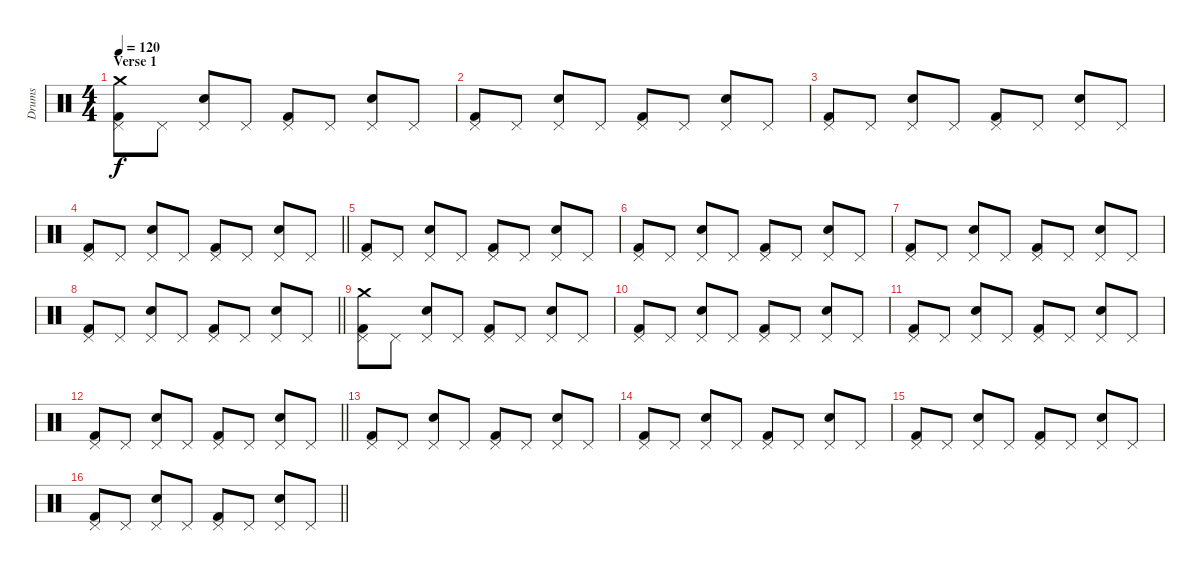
\track ("Drums" "Drums") {instrument percussion}
\staff {score}
\articulation defaults
\ts (4 4)
\section ("" "Verse 1")
\tempo 120
\clef neutral
\ks c
("Kick (hit) 2" "Pedal Hi-Hat (hit)" "Crash medium (hit)").8{dy f} "Pedal Hi-Hat (hit)".8 ("Snare (hit) 2" "Pedal Hi-Hat (hit)").8 "Pedal Hi-Hat (hit)".8 ("Kick (hit) 2" "Pedal Hi-Hat (hit)").8 "Pedal Hi-Hat (hit)".8 ("Snare (hit) 2" "Pedal Hi-Hat (hit)").8 "Pedal Hi-Hat (hit)".8 |
("Kick (hit) 2" "Pedal Hi-Hat (hit)").8 "Pedal Hi-Hat (hit)".8 ("Snare (hit) 2" "Pedal Hi-Hat (hit)").8 "Pedal Hi-Hat (hit)".8 ("Kick (hit) 2" "Pedal Hi-Hat (hit)").8 "Pedal Hi-Hat (hit)".8 ("Snare (hit) 2" "Pedal Hi-Hat (hit)").8 "Pedal Hi-Hat (hit)".8 |
("Kick (hit) 2" "Pedal Hi-Hat (hit)").8 "Pedal Hi-Hat (hit)".8 ("Snare (hit) 2" "Pedal Hi-Hat (hit)").8 "Pedal Hi-Hat (hit)".8 ("Kick (hit) 2" "Pedal Hi-Hat (hit)").8 "Pedal Hi-Hat (hit)".8 ("Snare (hit) 2" "Pedal Hi-Hat (hit)").8 "Pedal Hi-Hat (hit)".8 |
\barLineRight lightlight
("Kick (hit) 2" "Pedal Hi-Hat (hit)").8 "Pedal Hi-Hat (hit)".8 ("Snare (hit) 2" "Pedal Hi-Hat (hit)").8 "Pedal Hi-Hat (hit)".8 ("Kick (hit) 2" "Pedal Hi-Hat (hit)").8 "Pedal Hi-Hat (hit)".8 ("Snare (hit) 2" "Pedal Hi-Hat (hit)").8 "Pedal Hi-Hat (hit)".8 |
("Kick (hit) 2" "Pedal Hi-Hat (hit)").8 "Pedal Hi-Hat (hit)".8 ("Snare (hit) 2" "Pedal Hi-Hat (hit)").8 "Pedal Hi-Hat (hit)".8 ("Kick (hit) 2" "Pedal Hi-Hat (hit)").8 "Pedal Hi-Hat (hit)".8 ("Snare (hit) 2" "Pedal Hi-Hat (hit)").8 "Pedal Hi-Hat (hit)".8 |
("Kick (hit) 2" "Pedal Hi-Hat (hit)").8 "Pedal Hi-Hat (hit)".8 ("Snare (hit) 2" "Pedal Hi-Hat (hit)").8 "Pedal Hi-Hat (hit)".8 ("Kick (hit) 2" "Pedal Hi-Hat (hit)").8 "Pedal Hi-Hat (hit)".8 ("Snare (hit) 2" "Pedal Hi-Hat (hit)").8 "Pedal Hi-Hat (hit)".8 |
("Kick (hit) 2" "Pedal Hi-Hat (hit)").8 "Pedal Hi-Hat (hit)".8 ("Snare (hit) 2" "Pedal Hi-Hat (hit)").8 "Pedal Hi-Hat (hit)".8 ("Kick (hit) 2" "Pedal Hi-Hat (hit)").8 "Pedal Hi-Hat (hit)".8 ("Snare (hit) 2" "Pedal Hi-Hat (hit)").8 "Pedal Hi-Hat (hit)".8 |
\barLineRight lightlight
("Kick (hit) 2" "Pedal Hi-Hat (hit)").8 "Pedal Hi-Hat (hit)".8 ("Snare (hit) 2" "Pedal Hi-Hat (hit)").8 "Pedal Hi-Hat (hit)".8 ("Kick (hit) 2" "Pedal Hi-Hat (hit)").8 "Pedal Hi-Hat (hit)".8 ("Snare (hit) 2" "Pedal Hi-Hat (hit)").8 "Pedal Hi-Hat (hit)".8 |
("Kick (hit) 2" "Pedal Hi-Hat (hit)" "Crash medium (hit)").8 "Pedal Hi-Hat (hit)".8 ("Snare (hit) 2" "Pedal Hi-Hat (hit)").8 "Pedal Hi-Hat (hit)".8 ("Kick (hit) 2" "Pedal Hi-Hat (hit)").8 "Pedal Hi-Hat (hit)".8 ("Snare (hit) 2" "Pedal Hi-Hat (hit)").8 "Pedal Hi-Hat (hit)".8 |
("Kick (hit) 2" "Pedal Hi-Hat (hit)").8 "Pedal Hi-Hat (hit)".8 ("Snare (hit) 2" "Pedal Hi-Hat (hit)").8 "Pedal Hi-Hat (hit)".8 ("Kick (hit) 2" "Pedal Hi-Hat (hit)").8 "Pedal Hi-Hat (hit)".8 ("Snare (hit) 2" "Pedal Hi-Hat (hit)").8 "Pedal Hi-Hat (hit)".8 |
("Kick (hit) 2" "Pedal Hi-Hat (hit)").8 "Pedal Hi-Hat (hit)".8 ("Snare (hit) 2" "Pedal Hi-Hat (hit)").8 "Pedal Hi-Hat (hit)".8 ("Kick (hit) 2" "Pedal Hi-Hat (hit)").8 "Pedal Hi-Hat (hit)".8 ("Snare (hit) 2" "Pedal Hi-Hat (hit)").8 "Pedal Hi-Hat (hit)".8 |
\barLineRight lightlight
("Kick (hit) 2" "Pedal Hi-Hat (hit)").8 "Pedal Hi-Hat (hit)".8 ("Snare (hit) 2" "Pedal Hi-Hat (hit)").8 "Pedal Hi-Hat (hit)".8 ("Kick (hit) 2" "Pedal Hi-Hat (hit)").8 "Pedal Hi-Hat (hit)".8 ("Snare (hit) 2" "Pedal Hi-Hat (hit)").8 "Pedal Hi-Hat (hit)".8 |
("Kick (hit) 2" "Pedal Hi-Hat (hit)").8 "Pedal Hi-Hat (hit)".8 ("Snare (hit) 2" "Pedal Hi-Hat (hit)").8 "Pedal Hi-Hat (hit)".8 ("Kick (hit) 2" "Pedal Hi-Hat (hit)").8 "Pedal Hi-Hat (hit)".8 ("Snare (hit) 2" "Pedal Hi-Hat (hit)").8 "Pedal Hi-Hat (hit)".8 |
("Kick (hit) 2" "Pedal Hi-Hat (hit)").8 "Pedal Hi-Hat (hit)".8 ("Snare (hit) 2" "Pedal Hi-Hat (hit)").8 "Pedal Hi-Hat (hit)".8 ("Kick (hit) 2" "Pedal Hi-Hat (hit)").8 "Pedal Hi-Hat (hit)".8 ("Snare (hit) 2" "Pedal Hi-Hat (hit)").8 "Pedal Hi-Hat (hit)".8 |
("Kick (hit) 2" "Pedal Hi-Hat (hit)").8 "Pedal Hi-Hat (hit)".8 ("Snare (hit) 2" "Pedal Hi-Hat (hit)").8 "Pedal Hi-Hat (hit)".8 ("Kick (hit) 2" "Pedal Hi-Hat (hit)").8 "Pedal Hi-Hat (hit)".8 ("Snare (hit) 2" "Pedal Hi-Hat (hit)").8 "Pedal Hi-Hat (hit)".8 |
\barLineRight lightlight
("Kick (hit) 2" "Pedal Hi-Hat (hit)").8 "Pedal Hi-Hat (hit)".8 ("Snare (hit) 2" "Pedal Hi-Hat (hit)").8 "Pedal Hi-Hat (hit)".8 ("Kick (hit) 2" "Pedal Hi-Hat (hit)").8 "Pedal Hi-Hat (hit)".8 ("Snare (hit) 2" "Pedal Hi-Hat (hit)").8 "Pedal Hi-Hat (hit)".8
